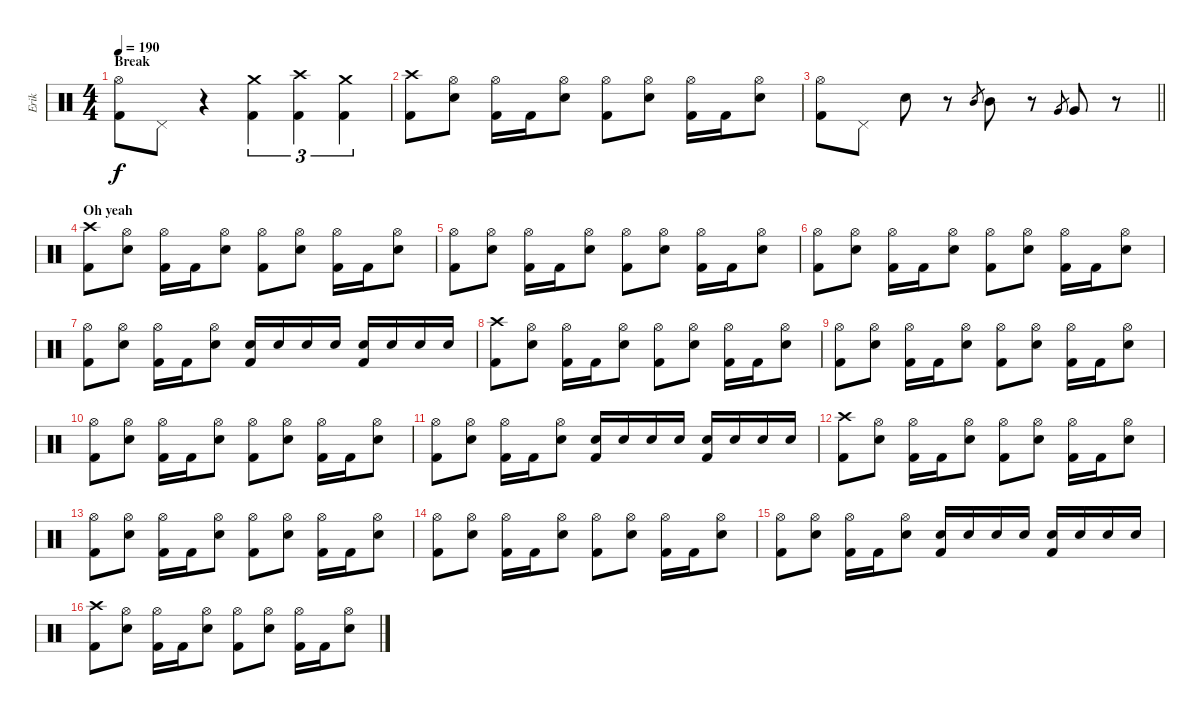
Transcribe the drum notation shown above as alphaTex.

\track ("Erik" "Erik") {instrument percussion}
\staff {score}
\articulation defaults
\ts (4 4)
\section ("" "Break")
\tempo 190
\clef neutral
\ks c
("Hi-Hat (open)" "Kick (hit) 2").8{dy f} "Pedal Hi-Hat (hit)".8 r.4 ("Crash medium (hit)" "Kick (hit) 2").4{tu (3 2)} ("Crash high (hit)" "Kick (hit) 2").4{tu (3 2)} ("Crash medium (hit)" "Kick (hit) 2").4{tu (3 2)} |
("Crash high (hit)" "Kick (hit) 2").8 ("Hi-Hat (open)" "Snare (hit) 2").8 ("Hi-Hat (open)" "Kick (hit) 2").16 "Kick (hit) 2".16 ("Hi-Hat (open)" "Snare (hit) 2").8 ("Hi-Hat (open)" "Kick (hit) 2").8 ("Hi-Hat (open)" "Snare (hit) 2").8 ("Hi-Hat (open)" "Kick (hit) 2").16 "Kick (hit) 2".16 ("Hi-Hat (open)" "Snare (hit) 2").8 |
\barLineRight lightlight
("Hi-Hat (open)" "Kick (hit) 2").8 "Pedal Hi-Hat (hit)".8 "Snare (hit) 2".8 r.8 "Mid Tom (hit)".8{gr} "Mid Tom (hit)".8 r.8 "Very Low Tom (hit)".8{gr} "Very Low Tom (hit)".8 r.8 |
\section ("" "Oh yeah")
("Crash high (hit)" "Kick (hit) 2").8 ("Hi-Hat (open)" "Snare (hit) 2").8 ("Hi-Hat (open)" "Kick (hit) 2").16 "Kick (hit) 2".16 ("Hi-Hat (open)" "Snare (hit) 2").8 ("Hi-Hat (open)" "Kick (hit) 2").8 ("Hi-Hat (open)" "Snare (hit) 2").8 ("Hi-Hat (open)" "Kick (hit) 2").16 "Kick (hit) 2".16 ("Hi-Hat (open)" "Snare (hit) 2").8 |
("Hi-Hat (open)" "Kick (hit) 2").8 ("Hi-Hat (open)" "Snare (hit) 2").8 ("Hi-Hat (open)" "Kick (hit) 2").16 "Kick (hit) 2".16 ("Hi-Hat (open)" "Snare (hit) 2").8 ("Hi-Hat (open)" "Kick (hit) 2").8 ("Hi-Hat (open)" "Snare (hit) 2").8 ("Hi-Hat (open)" "Kick (hit) 2").16 "Kick (hit) 2".16 ("Hi-Hat (open)" "Snare (hit) 2").8 |
("Hi-Hat (open)" "Kick (hit) 2").8 ("Hi-Hat (open)" "Snare (hit) 2").8 ("Hi-Hat (open)" "Kick (hit) 2").16 "Kick (hit) 2".16 ("Hi-Hat (open)" "Snare (hit) 2").8 ("Hi-Hat (open)" "Kick (hit) 2").8 ("Hi-Hat (open)" "Snare (hit) 2").8 ("Hi-Hat (open)" "Kick (hit) 2").16 "Kick (hit) 2".16 ("Hi-Hat (open)" "Snare (hit) 2").8 |
("Hi-Hat (open)" "Kick (hit) 2").8 ("Hi-Hat (open)" "Snare (hit) 2").8 ("Hi-Hat (open)" "Kick (hit) 2").16 "Kick (hit) 2".16 ("Hi-Hat (open)" "Snare (hit) 2").8 ("Snare (hit) 2" "Kick (hit) 2").16 "Snare (hit) 2".16 "Snare (hit) 2".16 "Snare (hit) 2".16 ("Snare (hit) 2" "Kick (hit) 2").16 "Snare (hit) 2".16 "Snare (hit) 2".16 "Snare (hit) 2".16 |
("Crash high (hit)" "Kick (hit) 2").8 ("Hi-Hat (open)" "Snare (hit) 2").8 ("Hi-Hat (open)" "Kick (hit) 2").16 "Kick (hit) 2".16 ("Hi-Hat (open)" "Snare (hit) 2").8 ("Hi-Hat (open)" "Kick (hit) 2").8 ("Hi-Hat (open)" "Snare (hit) 2").8 ("Hi-Hat (open)" "Kick (hit) 2").16 "Kick (hit) 2".16 ("Hi-Hat (open)" "Snare (hit) 2").8 |
("Hi-Hat (open)" "Kick (hit) 2").8 ("Hi-Hat (open)" "Snare (hit) 2").8 ("Hi-Hat (open)" "Kick (hit) 2").16 "Kick (hit) 2".16 ("Hi-Hat (open)" "Snare (hit) 2").8 ("Hi-Hat (open)" "Kick (hit) 2").8 ("Hi-Hat (open)" "Snare (hit) 2").8 ("Hi-Hat (open)" "Kick (hit) 2").16 "Kick (hit) 2".16 ("Hi-Hat (open)" "Snare (hit) 2").8 |
("Hi-Hat (open)" "Kick (hit) 2").8 ("Hi-Hat (open)" "Snare (hit) 2").8 ("Hi-Hat (open)" "Kick (hit) 2").16 "Kick (hit) 2".16 ("Hi-Hat (open)" "Snare (hit) 2").8 ("Hi-Hat (open)" "Kick (hit) 2").8 ("Hi-Hat (open)" "Snare (hit) 2").8 ("Hi-Hat (open)" "Kick (hit) 2").16 "Kick (hit) 2".16 ("Hi-Hat (open)" "Snare (hit) 2").8 |
("Hi-Hat (open)" "Kick (hit) 2").8 ("Hi-Hat (open)" "Snare (hit) 2").8 ("Hi-Hat (open)" "Kick (hit) 2").16 "Kick (hit) 2".16 ("Hi-Hat (open)" "Snare (hit) 2").8 ("Snare (hit) 2" "Kick (hit) 2").16 "Snare (hit) 2".16 "Snare (hit) 2".16 "Snare (hit) 2".16 ("Snare (hit) 2" "Kick (hit) 2").16 "Snare (hit) 2".16 "Snare (hit) 2".16 "Snare (hit) 2".16 |
("Crash high (hit)" "Kick (hit) 2").8 ("Hi-Hat (open)" "Snare (hit) 2").8 ("Hi-Hat (open)" "Kick (hit) 2").16 "Kick (hit) 2".16 ("Hi-Hat (open)" "Snare (hit) 2").8 ("Hi-Hat (open)" "Kick (hit) 2").8 ("Hi-Hat (open)" "Snare (hit) 2").8 ("Hi-Hat (open)" "Kick (hit) 2").16 "Kick (hit) 2".16 ("Hi-Hat (open)" "Snare (hit) 2").8 |
("Hi-Hat (open)" "Kick (hit) 2").8 ("Hi-Hat (open)" "Snare (hit) 2").8 ("Hi-Hat (open)" "Kick (hit) 2").16 "Kick (hit) 2".16 ("Hi-Hat (open)" "Snare (hit) 2").8 ("Hi-Hat (open)" "Kick (hit) 2").8 ("Hi-Hat (open)" "Snare (hit) 2").8 ("Hi-Hat (open)" "Kick (hit) 2").16 "Kick (hit) 2".16 ("Hi-Hat (open)" "Snare (hit) 2").8 |
("Hi-Hat (open)" "Kick (hit) 2").8 ("Hi-Hat (open)" "Snare (hit) 2").8 ("Hi-Hat (open)" "Kick (hit) 2").16 "Kick (hit) 2".16 ("Hi-Hat (open)" "Snare (hit) 2").8 ("Hi-Hat (open)" "Kick (hit) 2").8 ("Hi-Hat (open)" "Snare (hit) 2").8 ("Hi-Hat (open)" "Kick (hit) 2").16 "Kick (hit) 2".16 ("Hi-Hat (open)" "Snare (hit) 2").8 |
("Hi-Hat (open)" "Kick (hit) 2").8 ("Hi-Hat (open)" "Snare (hit) 2").8 ("Hi-Hat (open)" "Kick (hit) 2").16 "Kick (hit) 2".16 ("Hi-Hat (open)" "Snare (hit) 2").8 ("Snare (hit) 2" "Kick (hit) 2").16 "Snare (hit) 2".16 "Snare (hit) 2".16 "Snare (hit) 2".16 ("Snare (hit) 2" "Kick (hit) 2").16 "Snare (hit) 2".16 "Snare (hit) 2".16 "Snare (hit) 2".16 |
("Crash high (hit)" "Kick (hit) 2").8 ("Hi-Hat (open)" "Snare (hit) 2").8 ("Hi-Hat (open)" "Kick (hit) 2").16 "Kick (hit) 2".16 ("Hi-Hat (open)" "Snare (hit) 2").8 ("Hi-Hat (open)" "Kick (hit) 2").8 ("Hi-Hat (open)" "Snare (hit) 2").8 ("Hi-Hat (open)" "Kick (hit) 2").16 "Kick (hit) 2".16 ("Hi-Hat (open)" "Snare (hit) 2").8
